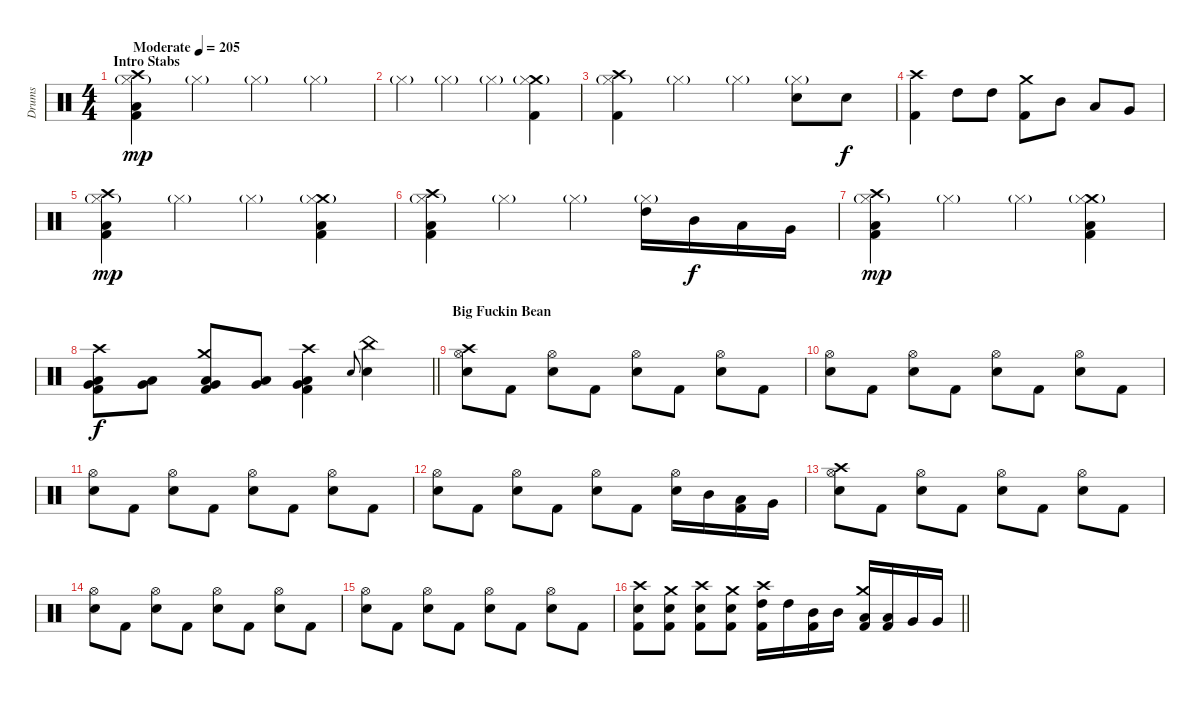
\track ("Drums" "Drums") {instrument percussion}
\staff {score}
\articulation defaults
\ts (4 4)
\section ("" "Intro Stabs")
\tempo (205 "Moderate")
\clef neutral
\ks c
("Crash high (hit)" "Hi-Hat (closed)"{g} "Low Floor Tom (hit)" "Kick (hit) 2").4{dy mp} "Hi-Hat (closed)"{g}.4 "Hi-Hat (closed)"{g}.4 "Hi-Hat (closed)"{g}.4 |
"Hi-Hat (closed)"{g}.4 "Hi-Hat (closed)"{g}.4 "Hi-Hat (closed)"{g}.4 ("Crash medium (hit)" "Hi-Hat (closed)"{g} "Kick (hit) 2").4 |
("Crash high (hit)" "Hi-Hat (closed)"{g} "Kick (hit) 2").4 "Hi-Hat (closed)"{g}.4 "Hi-Hat (closed)"{g}.4 ("Hi-Hat (closed)"{g} "Snare (hit) 2").8 "Snare (hit) 2".8{dy f} |
("Crash high (hit)" "Kick (hit) 2").4 "High Tom (hit)".8 "High Tom (hit)".8 ("Crash medium (hit)" "Kick (hit) 2").8 "Mid Tom (hit)".8 "Low Tom (hit)".8 "Very Low Tom (hit)".8 |
("Crash high (hit)" "Hi-Hat (closed)"{g} "Low Floor Tom (hit)" "Kick (hit) 2").4{dy mp} "Hi-Hat (closed)"{g}.4 "Hi-Hat (closed)"{g}.4 ("Crash medium (hit)" "Hi-Hat (closed)"{g} "Low Floor Tom (hit)" "Kick (hit) 2").4 |
("Crash high (hit)" "Hi-Hat (closed)"{g} "Low Floor Tom (hit)" "Kick (hit) 2").4 "Hi-Hat (closed)"{g}.4 "Hi-Hat (closed)"{g}.4 ("Hi-Hat (closed)"{g} "High Tom (hit)").16 "Mid Tom (hit)".16{dy f} "Low Tom (hit)".16 "Very Low Tom (hit)".16 |
("Crash high (hit)" "Hi-Hat (closed)"{g} "Low Floor Tom (hit)" "Kick (hit) 2").4{dy mp} "Hi-Hat (closed)"{g}.4 "Hi-Hat (closed)"{g}.4 ("Crash medium (hit)" "Hi-Hat (closed)"{g} "Low Floor Tom (hit)" "Kick (hit) 2").4 |
\barLineRight lightlight
("Crash high (hit)" "Very Low Tom (hit)" "Low Floor Tom (hit)" "Kick (hit) 2").8{dy f} ("Very Low Tom (hit)" "Low Floor Tom (hit)").8 ("Crash medium (hit)" "Very Low Tom (hit)" "Low Floor Tom (hit)" "Kick (hit) 2").8 ("Very Low Tom (hit)" "Low Floor Tom (hit)").8 ("Crash high (hit)" "Very Low Tom (hit)" "Low Floor Tom (hit)" "Kick (hit) 2").4 "Snare (hit) 2".8{gr onbeat} ("China (hit)" "Snare (hit) 2").4 |
\section ("" "Big Fuckin Bean")
("Crash high (hit)" "Hi-Hat (open)" "Snare (hit) 2").8 "Kick (hit) 2".8 ("Hi-Hat (open)" "Snare (hit) 2").8 "Kick (hit) 2".8 ("Hi-Hat (open)" "Snare (hit) 2").8 "Kick (hit) 2".8 ("Hi-Hat (open)" "Snare (hit) 2").8 "Kick (hit) 2".8 |
("Hi-Hat (open)" "Snare (hit) 2").8 "Kick (hit) 2".8 ("Hi-Hat (open)" "Snare (hit) 2").8 "Kick (hit) 2".8 ("Hi-Hat (open)" "Snare (hit) 2").8 "Kick (hit) 2".8 ("Hi-Hat (open)" "Snare (hit) 2").8 "Kick (hit) 2".8 |
("Hi-Hat (open)" "Snare (hit) 2").8 "Kick (hit) 2".8 ("Hi-Hat (open)" "Snare (hit) 2").8 "Kick (hit) 2".8 ("Hi-Hat (open)" "Snare (hit) 2").8 "Kick (hit) 2".8 ("Hi-Hat (open)" "Snare (hit) 2").8 "Kick (hit) 2".8 |
("Hi-Hat (open)" "Snare (hit) 2").8 "Kick (hit) 2".8 ("Hi-Hat (open)" "Snare (hit) 2").8 "Kick (hit) 2".8 ("Hi-Hat (open)" "Snare (hit) 2").8 "Kick (hit) 2".8 ("Hi-Hat (open)" "Snare (hit) 2").16 "Mid Tom (hit)".16 ("Low Tom (hit)" "Kick (hit) 2").16 "Very Low Tom (hit)".16 |
("Crash high (hit)" "Hi-Hat (open)" "Snare (hit) 2").8 "Kick (hit) 2".8 ("Hi-Hat (open)" "Snare (hit) 2").8 "Kick (hit) 2".8 ("Hi-Hat (open)" "Snare (hit) 2").8 "Kick (hit) 2".8 ("Hi-Hat (open)" "Snare (hit) 2").8 "Kick (hit) 2".8 |
("Hi-Hat (open)" "Snare (hit) 2").8 "Kick (hit) 2".8 ("Hi-Hat (open)" "Snare (hit) 2").8 "Kick (hit) 2".8 ("Hi-Hat (open)" "Snare (hit) 2").8 "Kick (hit) 2".8 ("Hi-Hat (open)" "Snare (hit) 2").8 "Kick (hit) 2".8 |
("Hi-Hat (open)" "Snare (hit) 2").8 "Kick (hit) 2".8 ("Hi-Hat (open)" "Snare (hit) 2").8 "Kick (hit) 2".8 ("Hi-Hat (open)" "Snare (hit) 2").8 "Kick (hit) 2".8 ("Hi-Hat (open)" "Snare (hit) 2").8 "Kick (hit) 2".8 |
\barLineRight lightlight
("Crash high (hit)" "Snare (hit) 2" "Kick (hit) 2").8 ("Crash medium (hit)" "Snare (hit) 2" "Kick (hit) 2").8 ("Crash high (hit)" "Snare (hit) 2" "Kick (hit) 2").8 ("Crash medium (hit)" "Snare (hit) 2" "Kick (hit) 2").8 ("Crash high (hit)" "High Tom (hit)" "Kick (hit) 2").16 "High Tom (hit)".16 ("Mid Tom (hit)" "Kick (hit) 2").16 "Mid Tom (hit)".16 ("Crash medium (hit)" "Low Tom (hit)" "Kick (hit) 2").16 ("Low Tom (hit)" "Kick (hit) 2").16 "Very Low Tom (hit)".16 "Very Low Tom (hit)".16
